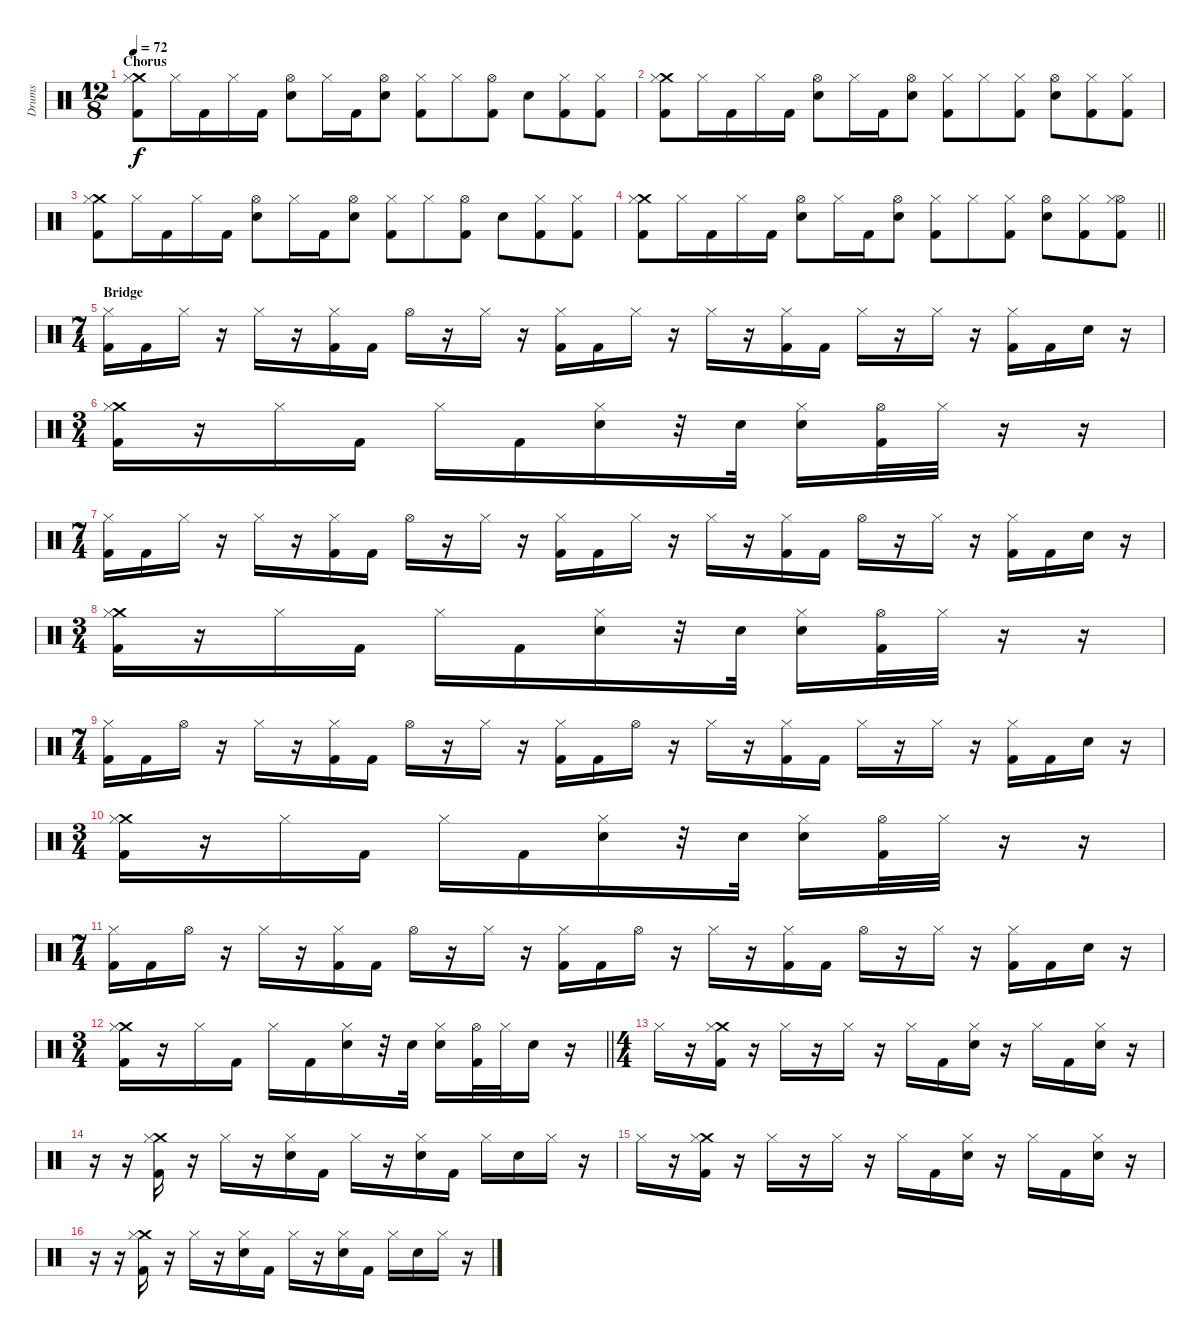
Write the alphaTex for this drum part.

\track ("Drums" "Drums") {instrument percussion}
\staff {score}
\articulation defaults
\ts (12 8)
\section ("" "Chorus")
\tempo 72
\clef neutral
\ks c
("Crash medium (hit)" "Hi-Hat (closed)" "Kick (hit) 2").8{dy f} "Hi-Hat (closed)".16 "Kick (hit) 2".16 "Hi-Hat (closed)".16 "Kick (hit) 2".16 ("Hi-Hat (open)" "Snare (hit) 2").8 "Hi-Hat (closed)".16 "Kick (hit) 2".16 ("Hi-Hat (open)" "Snare (hit) 2").8 ("Hi-Hat (closed)" "Kick (hit) 2").8 "Hi-Hat (closed)".8 ("Hi-Hat (open)" "Kick (hit) 2").8 "Snare (hit) 2".8 ("Hi-Hat (closed)" "Kick (hit) 2").8 ("Hi-Hat (closed)" "Kick (hit) 2").8 |
("Crash medium (hit)" "Hi-Hat (closed)" "Kick (hit) 2").8 "Hi-Hat (closed)".16 "Kick (hit) 2".16 "Hi-Hat (closed)".16 "Kick (hit) 2".16 ("Hi-Hat (open)" "Snare (hit) 2").8 "Hi-Hat (closed)".16 "Kick (hit) 2".16 ("Hi-Hat (open)" "Snare (hit) 2").8 ("Hi-Hat (closed)" "Kick (hit) 2").8 "Hi-Hat (closed)".8 ("Hi-Hat (closed)" "Kick (hit) 2").8 ("Hi-Hat (open)" "Snare (hit) 2").8 ("Hi-Hat (closed)" "Kick (hit) 2").8 ("Hi-Hat (closed)" "Kick (hit) 2").8 |
("Crash medium (hit)" "Hi-Hat (closed)" "Kick (hit) 2").8 "Hi-Hat (closed)".16 "Kick (hit) 2".16 "Hi-Hat (closed)".16 "Kick (hit) 2".16 ("Hi-Hat (open)" "Snare (hit) 2").8 "Hi-Hat (closed)".16 "Kick (hit) 2".16 ("Hi-Hat (open)" "Snare (hit) 2").8 ("Hi-Hat (closed)" "Kick (hit) 2").8 "Hi-Hat (closed)".8 ("Hi-Hat (open)" "Kick (hit) 2").8 "Snare (hit) 2".8 ("Hi-Hat (closed)" "Kick (hit) 2").8 ("Hi-Hat (closed)" "Kick (hit) 2").8 |
\barLineRight lightlight
("Crash medium (hit)" "Hi-Hat (closed)" "Kick (hit) 2").8 "Hi-Hat (closed)".16 "Kick (hit) 2".16 "Hi-Hat (closed)".16 "Kick (hit) 2".16 ("Hi-Hat (open)" "Snare (hit) 2").8 "Hi-Hat (closed)".16 "Kick (hit) 2".16 ("Hi-Hat (open)" "Snare (hit) 2").8 ("Hi-Hat (closed)" "Kick (hit) 2").8 "Hi-Hat (closed)".8 ("Hi-Hat (closed)" "Kick (hit) 2").8 ("Hi-Hat (open)" "Snare (hit) 2").8 ("Hi-Hat (closed)" "Kick (hit) 2").8 ("Hi-Hat (open)" "Hi-Hat (closed)" "Kick (hit) 2").8 |
\ts (7 4)
\section ("" "Bridge")
("Hi-Hat (closed)" "Kick (hit) 2").16 "Kick (hit) 2".16 "Hi-Hat (closed)".16 r.16 "Hi-Hat (closed)".16 r.16 ("Hi-Hat (closed)" "Kick (hit) 2").16 "Kick (hit) 2".16 "Hi-Hat (open)".16 r.16 "Hi-Hat (closed)".16 r.16 ("Hi-Hat (closed)" "Kick (hit) 2").16 "Kick (hit) 2".16 "Hi-Hat (closed)".16 r.16 "Hi-Hat (closed)".16 r.16 ("Hi-Hat (closed)" "Kick (hit) 2").16 "Kick (hit) 2".16 "Hi-Hat (closed)".16 r.16 "Hi-Hat (closed)".16 r.16 ("Hi-Hat (closed)" "Kick (hit) 2").16 "Kick (hit) 2".16 "Snare (hit) 2".16 r.16 |
\ts (3 4)
("Crash medium (hit)" "Hi-Hat (closed)" "Kick (hit) 2").16 r.16 "Hi-Hat (closed)".16 "Kick (hit) 2".16 "Hi-Hat (closed)".16 "Kick (hit) 2".16 ("Hi-Hat (closed)" "Snare (hit) 2").16 r.32 "Snare (hit) 2".32 ("Hi-Hat (closed)" "Snare (hit) 2").16 ("Hi-Hat (open)" "Kick (hit) 2").32 "Hi-Hat (closed)".32 r.16 r.16 |
\ts (7 4)
("Hi-Hat (closed)" "Kick (hit) 2").16 "Kick (hit) 2".16 "Hi-Hat (closed)".16 r.16 "Hi-Hat (closed)".16 r.16 ("Hi-Hat (closed)" "Kick (hit) 2").16 "Kick (hit) 2".16 "Hi-Hat (open)".16 r.16 "Hi-Hat (closed)".16 r.16 ("Hi-Hat (closed)" "Kick (hit) 2").16 "Kick (hit) 2".16 "Hi-Hat (closed)".16 r.16 "Hi-Hat (closed)".16 r.16 ("Hi-Hat (closed)" "Kick (hit) 2").16 "Kick (hit) 2".16 "Hi-Hat (open)".16 r.16 "Hi-Hat (closed)".16 r.16 ("Hi-Hat (closed)" "Kick (hit) 2").16 "Kick (hit) 2".16 "Snare (hit) 2".16 r.16 |
\ts (3 4)
("Crash medium (hit)" "Hi-Hat (closed)" "Kick (hit) 2").16 r.16 "Hi-Hat (closed)".16 "Kick (hit) 2".16 "Hi-Hat (closed)".16 "Kick (hit) 2".16 ("Hi-Hat (closed)" "Snare (hit) 2").16 r.32 "Snare (hit) 2".32 ("Hi-Hat (closed)" "Snare (hit) 2").16 ("Hi-Hat (open)" "Kick (hit) 2").32 "Hi-Hat (closed)".32 r.16 r.16 |
\ts (7 4)
("Hi-Hat (closed)" "Kick (hit) 2").16 "Kick (hit) 2".16 "Hi-Hat (open)".16 r.16 "Hi-Hat (closed)".16 r.16 ("Hi-Hat (closed)" "Kick (hit) 2").16 "Kick (hit) 2".16 "Hi-Hat (open)".16 r.16 "Hi-Hat (closed)".16 r.16 ("Hi-Hat (closed)" "Kick (hit) 2").16 "Kick (hit) 2".16 "Hi-Hat (open)".16 r.16 "Hi-Hat (closed)".16 r.16 ("Hi-Hat (closed)" "Kick (hit) 2").16 "Kick (hit) 2".16 "Hi-Hat (closed)".16 r.16 "Hi-Hat (closed)".16 r.16 ("Hi-Hat (closed)" "Kick (hit) 2").16 "Kick (hit) 2".16 "Snare (hit) 2".16 r.16 |
\ts (3 4)
("Crash medium (hit)" "Hi-Hat (closed)" "Kick (hit) 2").16 r.16 "Hi-Hat (closed)".16 "Kick (hit) 2".16 "Hi-Hat (closed)".16 "Kick (hit) 2".16 ("Hi-Hat (closed)" "Snare (hit) 2").16 r.32 "Snare (hit) 2".32 ("Hi-Hat (closed)" "Snare (hit) 2").16 ("Hi-Hat (open)" "Kick (hit) 2").32 "Hi-Hat (closed)".32 r.16 r.16 |
\ts (7 4)
("Hi-Hat (closed)" "Kick (hit) 2").16 "Kick (hit) 2".16 "Hi-Hat (open)".16 r.16 "Hi-Hat (closed)".16 r.16 ("Hi-Hat (closed)" "Kick (hit) 2").16 "Kick (hit) 2".16 "Hi-Hat (open)".16 r.16 "Hi-Hat (closed)".16 r.16 ("Hi-Hat (closed)" "Kick (hit) 2").16 "Kick (hit) 2".16 "Hi-Hat (open)".16 r.16 "Hi-Hat (closed)".16 r.16 ("Hi-Hat (closed)" "Kick (hit) 2").16 "Kick (hit) 2".16 "Hi-Hat (open)".16 r.16 "Hi-Hat (closed)".16 r.16 ("Hi-Hat (closed)" "Kick (hit) 2").16 "Kick (hit) 2".16 "Snare (hit) 2".16 r.16 |
\ts (3 4)
\barLineRight lightlight
("Crash medium (hit)" "Hi-Hat (closed)" "Kick (hit) 2").16 r.16 "Hi-Hat (closed)".16 "Kick (hit) 2".16 "Hi-Hat (closed)".16 "Kick (hit) 2".16 ("Hi-Hat (closed)" "Snare (hit) 2").16 r.32 "Snare (hit) 2".32 ("Hi-Hat (closed)" "Snare (hit) 2").16 ("Hi-Hat (open)" "Kick (hit) 2").32 "Hi-Hat (closed)".32 "Snare (hit) 2".16 r.16 |
\ts (4 4)
\section ("" "")
"Hi-Hat (closed)".16 r.16 ("Crash medium (hit)" "Hi-Hat (closed)" "Kick (hit) 2").16 r.16 "Hi-Hat (closed)".16 r.16 "Hi-Hat (closed)".16 r.16 "Hi-Hat (closed)".16 "Kick (hit) 2".16 ("Hi-Hat (closed)" "Snare (hit) 2").16 r.16 "Hi-Hat (closed)".16 "Kick (hit) 2".16 ("Hi-Hat (closed)" "Snare (hit) 2").16 r.16 |
r.16 r.16 ("Crash medium (hit)" "Hi-Hat (closed)" "Kick (hit) 2").16 r.16 "Hi-Hat (closed)".16 r.16 ("Hi-Hat (closed)" "Snare (hit) 2").16 "Kick (hit) 2".16 "Hi-Hat (closed)".16 r.16 ("Hi-Hat (closed)" "Snare (hit) 2").16 "Kick (hit) 2".16 "Hi-Hat (closed)".16 "Snare (hit) 2".16 "Hi-Hat (closed)".16 r.16 |
"Hi-Hat (closed)".16 r.16 ("Crash medium (hit)" "Hi-Hat (closed)" "Kick (hit) 2").16 r.16 "Hi-Hat (closed)".16 r.16 "Hi-Hat (closed)".16 r.16 "Hi-Hat (closed)".16 "Kick (hit) 2".16 ("Hi-Hat (closed)" "Snare (hit) 2").16 r.16 "Hi-Hat (closed)".16 "Kick (hit) 2".16 ("Hi-Hat (closed)" "Snare (hit) 2").16 r.16 |
r.16 r.16 ("Crash medium (hit)" "Hi-Hat (closed)" "Kick (hit) 2").16 r.16 "Hi-Hat (closed)".16 r.16 ("Hi-Hat (closed)" "Snare (hit) 2").16 "Kick (hit) 2".16 "Hi-Hat (closed)".16 r.16 ("Hi-Hat (closed)" "Snare (hit) 2").16 "Kick (hit) 2".16 "Hi-Hat (closed)".16 "Snare (hit) 2".16 "Hi-Hat (closed)".16 r.16
